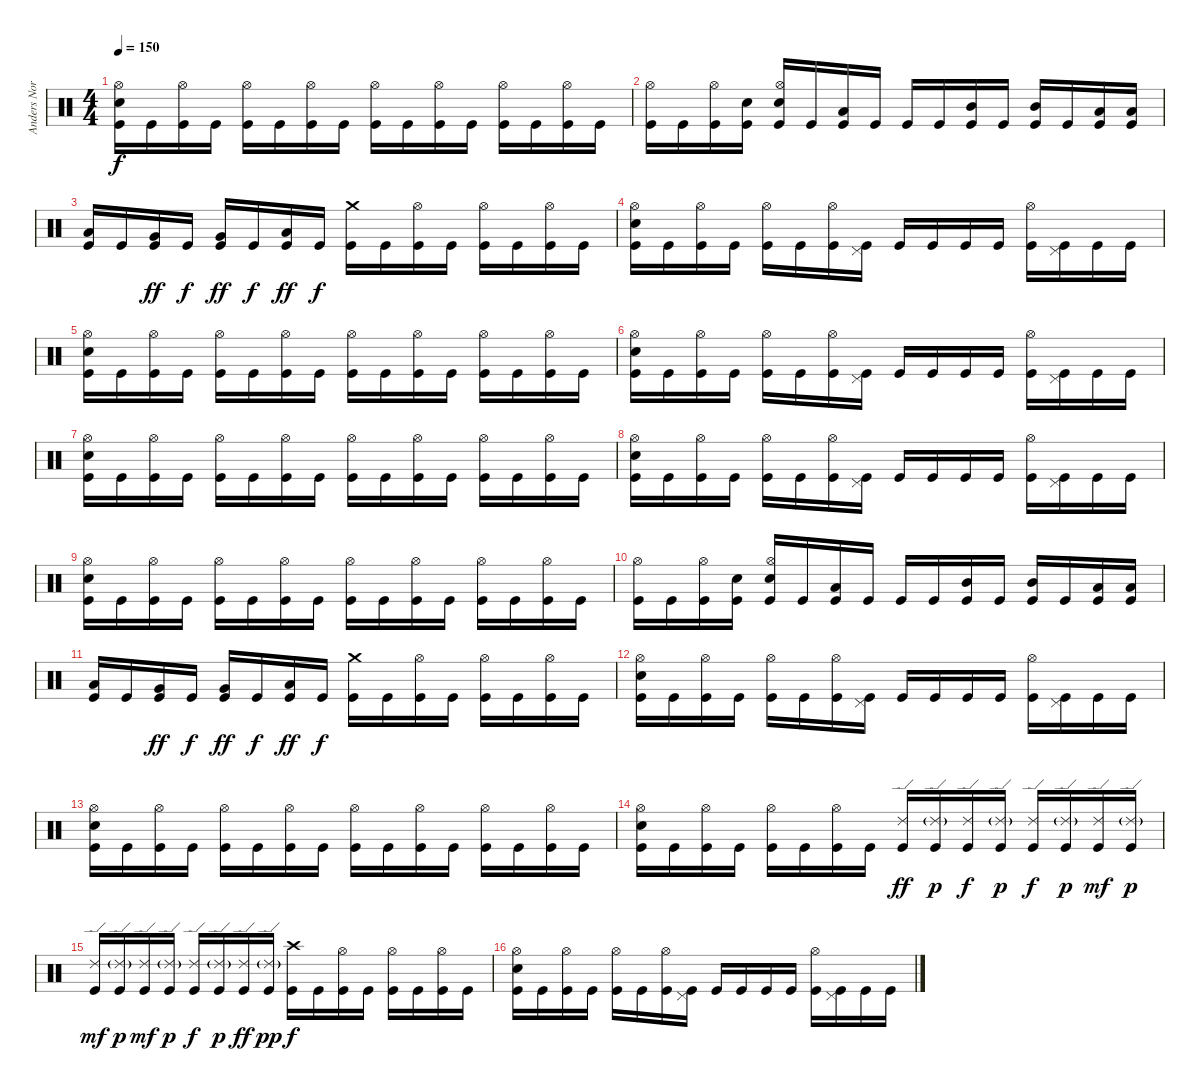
\track ("Anders Nordin" "Anders Nor") {instrument percussion}
\staff {score}
\articulation defaults
\ts (4 4)
\tempo 150
\clef neutral
\ks c
("Snare (hit) 2" "Hi-Hat (open)" "Kick (hit)").16{dy f} "Kick (hit)".16 ("Hi-Hat (open)" "Kick (hit)").16 "Kick (hit)".16 ("Hi-Hat (open)" "Kick (hit)").16 "Kick (hit)".16 ("Hi-Hat (open)" "Kick (hit)").16 "Kick (hit)".16 ("Hi-Hat (open)" "Kick (hit)").16 "Kick (hit)".16 ("Hi-Hat (open)" "Kick (hit)").16 "Kick (hit)".16 ("Hi-Hat (open)" "Kick (hit)").16 "Kick (hit)".16 ("Hi-Hat (open)" "Kick (hit)").16 "Kick (hit)".16 |
("Hi-Hat (open)" "Kick (hit)").16 "Kick (hit)".16 ("Hi-Hat (open)" "Kick (hit)").16 ("Snare (hit) 2" "Kick (hit)").16 ("Snare (hit) 2" "Hi-Hat (open)" "Kick (hit)").16 "Kick (hit)".16 ("Low Tom (hit)" "Kick (hit)").16 "Kick (hit)".16 "Kick (hit)".16 "Kick (hit)".16 ("Mid Tom (hit)" "Kick (hit)").16 "Kick (hit)".16 ("Mid Tom (hit)" "Kick (hit)").16 "Kick (hit)".16 ("Low Tom (hit)" "Kick (hit)").16 ("Low Tom (hit)" "Kick (hit)").16 |
("Low Tom (hit)" "Kick (hit)").16 "Kick (hit)".16 ("Very Low Tom (hit)" "Kick (hit)").16{dy ff} "Kick (hit)".16{dy f} ("Very Low Tom (hit)" "Kick (hit)").16{dy ff} "Kick (hit)".16{dy f} ("Low Floor Tom (hit)" "Kick (hit)").16{dy ff} "Kick (hit)".16{dy f} ("Crash medium (hit)" "Kick (hit)").16 "Kick (hit)".16 ("Hi-Hat (open)" "Kick (hit)").16 "Kick (hit)".16 ("Hi-Hat (open)" "Kick (hit)").16 "Kick (hit)".16 ("Hi-Hat (open)" "Kick (hit)").16 "Kick (hit)".16 |
("Hi-Hat (open)" "Snare (hit) 2" "Kick (hit)").16 "Kick (hit)".16 ("Hi-Hat (open)" "Kick (hit)").16 "Kick (hit)".16 ("Hi-Hat (open)" "Kick (hit)").16 "Kick (hit)".16 ("Hi-Hat (open)" "Kick (hit)").16 ("Pedal Hi-Hat (hit)" "Kick (hit)").16 "Kick (hit)".16 "Kick (hit)".16 "Kick (hit)".16 "Kick (hit)".16 ("Hi-Hat (open)" "Kick (hit)").16 ("Pedal Hi-Hat (hit)" "Kick (hit)").16 "Kick (hit)".16 "Kick (hit)".16 |
("Snare (hit) 2" "Hi-Hat (open)" "Kick (hit)").16 "Kick (hit)".16 ("Hi-Hat (open)" "Kick (hit)").16 "Kick (hit)".16 ("Hi-Hat (open)" "Kick (hit)").16 "Kick (hit)".16 ("Hi-Hat (open)" "Kick (hit)").16 "Kick (hit)".16 ("Hi-Hat (open)" "Kick (hit)").16 "Kick (hit)".16 ("Hi-Hat (open)" "Kick (hit)").16 "Kick (hit)".16 ("Hi-Hat (open)" "Kick (hit)").16 "Kick (hit)".16 ("Hi-Hat (open)" "Kick (hit)").16 "Kick (hit)".16 |
("Hi-Hat (open)" "Snare (hit) 2" "Kick (hit)").16 "Kick (hit)".16 ("Hi-Hat (open)" "Kick (hit)").16 "Kick (hit)".16 ("Hi-Hat (open)" "Kick (hit)").16 "Kick (hit)".16 ("Hi-Hat (open)" "Kick (hit)").16 ("Pedal Hi-Hat (hit)" "Kick (hit)").16 "Kick (hit)".16 "Kick (hit)".16 "Kick (hit)".16 "Kick (hit)".16 ("Hi-Hat (open)" "Kick (hit)").16 ("Pedal Hi-Hat (hit)" "Kick (hit)").16 "Kick (hit)".16 "Kick (hit)".16 |
("Snare (hit) 2" "Hi-Hat (open)" "Kick (hit)").16 "Kick (hit)".16 ("Hi-Hat (open)" "Kick (hit)").16 "Kick (hit)".16 ("Hi-Hat (open)" "Kick (hit)").16 "Kick (hit)".16 ("Hi-Hat (open)" "Kick (hit)").16 "Kick (hit)".16 ("Hi-Hat (open)" "Kick (hit)").16 "Kick (hit)".16 ("Hi-Hat (open)" "Kick (hit)").16 "Kick (hit)".16 ("Hi-Hat (open)" "Kick (hit)").16 "Kick (hit)".16 ("Hi-Hat (open)" "Kick (hit)").16 "Kick (hit)".16 |
("Hi-Hat (open)" "Snare (hit) 2" "Kick (hit)").16 "Kick (hit)".16 ("Hi-Hat (open)" "Kick (hit)").16 "Kick (hit)".16 ("Hi-Hat (open)" "Kick (hit)").16 "Kick (hit)".16 ("Hi-Hat (open)" "Kick (hit)").16 ("Pedal Hi-Hat (hit)" "Kick (hit)").16 "Kick (hit)".16 "Kick (hit)".16 "Kick (hit)".16 "Kick (hit)".16 ("Hi-Hat (open)" "Kick (hit)").16 ("Pedal Hi-Hat (hit)" "Kick (hit)").16 "Kick (hit)".16 "Kick (hit)".16 |
("Snare (hit) 2" "Hi-Hat (open)" "Kick (hit)").16 "Kick (hit)".16 ("Hi-Hat (open)" "Kick (hit)").16 "Kick (hit)".16 ("Hi-Hat (open)" "Kick (hit)").16 "Kick (hit)".16 ("Hi-Hat (open)" "Kick (hit)").16 "Kick (hit)".16 ("Hi-Hat (open)" "Kick (hit)").16 "Kick (hit)".16 ("Hi-Hat (open)" "Kick (hit)").16 "Kick (hit)".16 ("Hi-Hat (open)" "Kick (hit)").16 "Kick (hit)".16 ("Hi-Hat (open)" "Kick (hit)").16 "Kick (hit)".16 |
("Hi-Hat (open)" "Kick (hit)").16 "Kick (hit)".16 ("Hi-Hat (open)" "Kick (hit)").16 ("Snare (hit) 2" "Kick (hit)").16 ("Snare (hit) 2" "Hi-Hat (open)" "Kick (hit)").16 "Kick (hit)".16 ("Low Tom (hit)" "Kick (hit)").16 "Kick (hit)".16 "Kick (hit)".16 "Kick (hit)".16 ("Mid Tom (hit)" "Kick (hit)").16 "Kick (hit)".16 ("Mid Tom (hit)" "Kick (hit)").16 "Kick (hit)".16 ("Low Tom (hit)" "Kick (hit)").16 ("Low Tom (hit)" "Kick (hit)").16 |
("Low Tom (hit)" "Kick (hit)").16 "Kick (hit)".16 ("Very Low Tom (hit)" "Kick (hit)").16{dy ff} "Kick (hit)".16{dy f} ("Very Low Tom (hit)" "Kick (hit)").16{dy ff} "Kick (hit)".16{dy f} ("Low Floor Tom (hit)" "Kick (hit)").16{dy ff} "Kick (hit)".16{dy f} ("Crash medium (hit)" "Kick (hit)").16 "Kick (hit)".16 ("Hi-Hat (open)" "Kick (hit)").16 "Kick (hit)".16 ("Hi-Hat (open)" "Kick (hit)").16 "Kick (hit)".16 ("Hi-Hat (open)" "Kick (hit)").16 "Kick (hit)".16 |
("Hi-Hat (open)" "Snare (hit) 2" "Kick (hit)").16 "Kick (hit)".16 ("Hi-Hat (open)" "Kick (hit)").16 "Kick (hit)".16 ("Hi-Hat (open)" "Kick (hit)").16 "Kick (hit)".16 ("Hi-Hat (open)" "Kick (hit)").16 ("Pedal Hi-Hat (hit)" "Kick (hit)").16 "Kick (hit)".16 "Kick (hit)".16 "Kick (hit)".16 "Kick (hit)".16 ("Hi-Hat (open)" "Kick (hit)").16 ("Pedal Hi-Hat (hit)" "Kick (hit)").16 "Kick (hit)".16 "Kick (hit)".16 |
("Snare (hit) 2" "Hi-Hat (open)" "Kick (hit)").16 "Kick (hit)".16 ("Hi-Hat (open)" "Kick (hit)").16 "Kick (hit)".16 ("Hi-Hat (open)" "Kick (hit)").16 "Kick (hit)".16 ("Hi-Hat (open)" "Kick (hit)").16 "Kick (hit)".16 ("Hi-Hat (open)" "Kick (hit)").16 "Kick (hit)".16 ("Hi-Hat (open)" "Kick (hit)").16 "Kick (hit)".16 ("Hi-Hat (open)" "Kick (hit)").16 "Kick (hit)".16 ("Hi-Hat (open)" "Kick (hit)").16 "Kick (hit)".16 |
("Hi-Hat (open)" "Snare (hit) 2" "Kick (hit)").16 "Kick (hit)".16 ("Hi-Hat (open)" "Kick (hit)").16 "Kick (hit)".16 ("Hi-Hat (open)" "Kick (hit)").16 "Kick (hit)".16 ("Hi-Hat (open)" "Kick (hit)").16 "Kick (hit)".16 ("Ride (edge) 2" "Kick (hit)").16{dy ff} ("Ride (edge) 2"{g} "Kick (hit)").16{dy p} ("Ride (edge) 2" "Kick (hit)").16{dy f} ("Ride (edge) 2"{g} "Kick (hit)").16{dy p} ("Ride (edge) 2" "Kick (hit)").16{dy f} ("Ride (edge) 2"{g} "Kick (hit)").16{dy p} ("Ride (edge) 2" "Kick (hit)").16{dy mf} ("Ride (edge) 2"{g} "Kick (hit)").16{dy p} |
("Ride (edge) 2" "Kick (hit)").16{dy mf} ("Ride (edge) 2"{g} "Kick (hit)").16{dy p} ("Ride (edge) 2" "Kick (hit)").16{dy mf} ("Ride (edge) 2"{g} "Kick (hit)").16{dy p} ("Ride (edge) 2" "Kick (hit)").16{dy f} ("Ride (edge) 2"{g} "Kick (hit)").16{dy p} ("Ride (edge) 2" "Kick (hit)").16{dy ff} ("Ride (edge) 2"{g} "Kick (hit)").16{dy pp} ("Crash high (hit)" "Kick (hit)").16{dy f} "Kick (hit)".16 ("Hi-Hat (open)" "Kick (hit)").16 "Kick (hit)".16 ("Hi-Hat (open)" "Kick (hit)").16 "Kick (hit)".16 ("Hi-Hat (open)" "Kick (hit)").16 "Kick (hit)".16 |
("Hi-Hat (open)" "Snare (hit) 2" "Kick (hit)").16 "Kick (hit)".16 ("Hi-Hat (open)" "Kick (hit)").16 "Kick (hit)".16 ("Hi-Hat (open)" "Kick (hit)").16 "Kick (hit)".16 ("Hi-Hat (open)" "Kick (hit)").16 ("Pedal Hi-Hat (hit)" "Kick (hit)").16 "Kick (hit)".16 "Kick (hit)".16 "Kick (hit)".16 "Kick (hit)".16 ("Hi-Hat (open)" "Kick (hit)").16 ("Pedal Hi-Hat (hit)" "Kick (hit)").16 "Kick (hit)".16 "Kick (hit)".16
